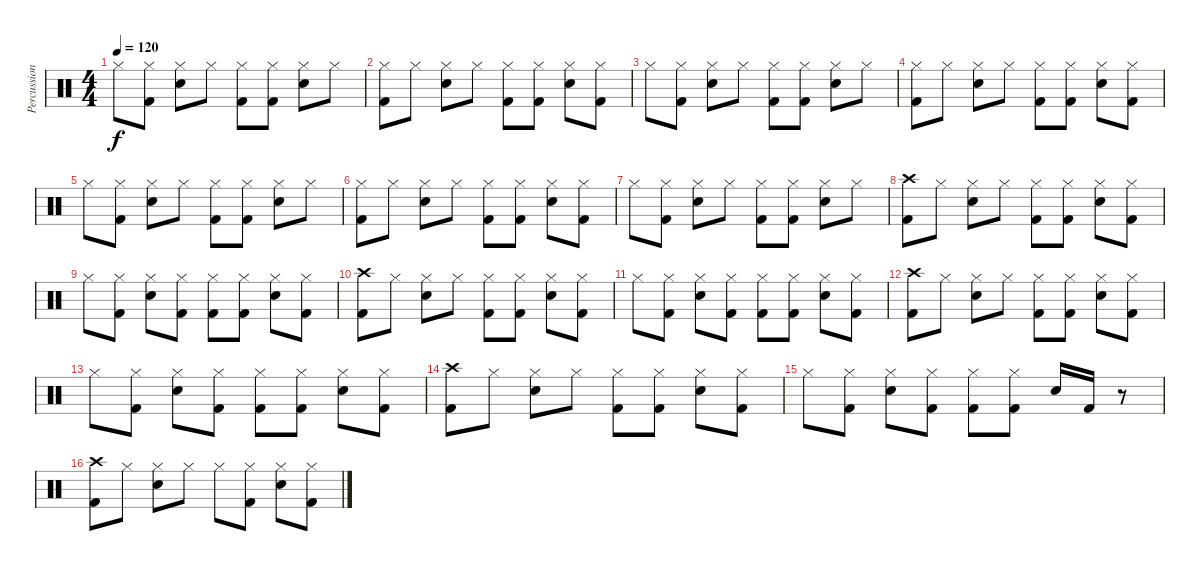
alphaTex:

\track ("Percussion" "Percussion") {instrument percussion}
\staff {score}
\articulation defaults
\ts (4 4)
\tempo 120
\clef neutral
\ks c "Hi-Hat (closed)".8{dy f}
("Hi-Hat (closed)" "Kick (hit) 2").8 ("Hi-Hat (closed)" "Snare (hit) 2").8 "Hi-Hat (closed)".8 ("Hi-Hat (closed)" "Kick (hit) 2").8 ("Hi-Hat (closed)" "Kick (hit) 2").8 ("Hi-Hat (closed)" "Snare (hit) 2").8 "Hi-Hat (closed)".8 |
("Hi-Hat (closed)" "Kick (hit) 2").8 "Hi-Hat (closed)".8 ("Hi-Hat (closed)" "Snare (hit) 2").8 "Hi-Hat (closed)".8 ("Hi-Hat (closed)" "Kick (hit) 2").8 ("Hi-Hat (closed)" "Kick (hit) 2").8 ("Hi-Hat (closed)" "Snare (hit) 2").8 ("Hi-Hat (closed)" "Kick (hit) 2").8 |
"Hi-Hat (closed)".8 ("Hi-Hat (closed)" "Kick (hit) 2").8 ("Hi-Hat (closed)" "Snare (hit) 2").8 "Hi-Hat (closed)".8 ("Hi-Hat (closed)" "Kick (hit) 2").8 ("Hi-Hat (closed)" "Kick (hit) 2").8 ("Hi-Hat (closed)" "Snare (hit) 2").8 "Hi-Hat (closed)".8 |
("Hi-Hat (closed)" "Kick (hit) 2").8 "Hi-Hat (closed)".8 ("Hi-Hat (closed)" "Snare (hit) 2").8 "Hi-Hat (closed)".8 ("Hi-Hat (closed)" "Kick (hit) 2").8 ("Hi-Hat (closed)" "Kick (hit) 2").8 ("Hi-Hat (closed)" "Snare (hit) 2").8 ("Hi-Hat (closed)" "Kick (hit) 2").8 |
"Hi-Hat (closed)".8 ("Hi-Hat (closed)" "Kick (hit) 2").8 ("Hi-Hat (closed)" "Snare (hit) 2").8 "Hi-Hat (closed)".8 ("Hi-Hat (closed)" "Kick (hit) 2").8 ("Hi-Hat (closed)" "Kick (hit) 2").8 ("Hi-Hat (closed)" "Snare (hit) 2").8 "Hi-Hat (closed)".8 |
("Hi-Hat (closed)" "Kick (hit) 2").8 "Hi-Hat (closed)".8 ("Hi-Hat (closed)" "Snare (hit) 2").8 "Hi-Hat (closed)".8 ("Hi-Hat (closed)" "Kick (hit) 2").8 ("Hi-Hat (closed)" "Kick (hit) 2").8 ("Hi-Hat (closed)" "Snare (hit) 2").8 ("Hi-Hat (closed)" "Kick (hit) 2").8 |
"Hi-Hat (closed)".8 ("Hi-Hat (closed)" "Kick (hit) 2").8 ("Hi-Hat (closed)" "Snare (hit) 2").8 "Hi-Hat (closed)".8 ("Hi-Hat (closed)" "Kick (hit) 2").8 ("Hi-Hat (closed)" "Kick (hit) 2").8 ("Hi-Hat (closed)" "Snare (hit) 2").8 "Hi-Hat (closed)".8 |
("Crash high (hit)" "Kick (hit) 2").8 "Hi-Hat (closed)".8 ("Hi-Hat (closed)" "Snare (hit) 2").8 "Hi-Hat (closed)".8 ("Hi-Hat (closed)" "Kick (hit) 2").8 ("Hi-Hat (closed)" "Kick (hit) 2").8 ("Hi-Hat (closed)" "Snare (hit) 2").8 ("Hi-Hat (closed)" "Kick (hit) 2").8 |
"Hi-Hat (closed)".8 ("Hi-Hat (closed)" "Kick (hit) 2").8 ("Hi-Hat (closed)" "Snare (hit) 2").8 ("Hi-Hat (closed)" "Kick (hit) 2").8 ("Hi-Hat (closed)" "Kick (hit) 2").8 ("Hi-Hat (closed)" "Kick (hit) 2").8 ("Hi-Hat (closed)" "Snare (hit) 2").8 ("Hi-Hat (closed)" "Kick (hit) 2").8 |
("Crash high (hit)" "Kick (hit) 2").8 "Hi-Hat (closed)".8 ("Hi-Hat (closed)" "Snare (hit) 2").8 "Hi-Hat (closed)".8 ("Hi-Hat (closed)" "Kick (hit) 2").8 ("Hi-Hat (closed)" "Kick (hit) 2").8 ("Hi-Hat (closed)" "Snare (hit) 2").8 ("Hi-Hat (closed)" "Kick (hit) 2").8 |
"Hi-Hat (closed)".8 ("Hi-Hat (closed)" "Kick (hit) 2").8 ("Hi-Hat (closed)" "Snare (hit) 2").8 ("Hi-Hat (closed)" "Kick (hit) 2").8 ("Hi-Hat (closed)" "Kick (hit) 2").8 ("Hi-Hat (closed)" "Kick (hit) 2").8 ("Hi-Hat (closed)" "Snare (hit) 2").8 ("Hi-Hat (closed)" "Kick (hit) 2").8 |
("Crash high (hit)" "Kick (hit) 2").8 "Hi-Hat (closed)".8 ("Hi-Hat (closed)" "Snare (hit) 2").8 "Hi-Hat (closed)".8 ("Hi-Hat (closed)" "Kick (hit) 2").8 ("Hi-Hat (closed)" "Kick (hit) 2").8 ("Hi-Hat (closed)" "Snare (hit) 2").8 ("Hi-Hat (closed)" "Kick (hit) 2").8 |
"Hi-Hat (closed)".8 ("Hi-Hat (closed)" "Kick (hit) 2").8 ("Hi-Hat (closed)" "Snare (hit) 2").8 ("Hi-Hat (closed)" "Kick (hit) 2").8 ("Hi-Hat (closed)" "Kick (hit) 2").8 ("Hi-Hat (closed)" "Kick (hit) 2").8 ("Hi-Hat (closed)" "Snare (hit) 2").8 ("Hi-Hat (closed)" "Kick (hit) 2").8 |
("Crash high (hit)" "Kick (hit) 2").8 "Hi-Hat (closed)".8 ("Hi-Hat (closed)" "Snare (hit) 2").8 "Hi-Hat (closed)".8 ("Hi-Hat (closed)" "Kick (hit) 2").8 ("Hi-Hat (closed)" "Kick (hit) 2").8 ("Hi-Hat (closed)" "Snare (hit) 2").8 ("Hi-Hat (closed)" "Kick (hit) 2").8 |
"Hi-Hat (closed)".8 ("Hi-Hat (closed)" "Kick (hit) 2").8 ("Hi-Hat (closed)" "Snare (hit) 2").8 ("Hi-Hat (closed)" "Kick (hit) 2").8 ("Hi-Hat (closed)" "Kick (hit) 2").8 ("Hi-Hat (closed)" "Kick (hit) 2").8 "Electric Snare (hit)".16 "Kick (hit) 2".16 r.8 |
("Crash high (hit)" "Kick (hit) 2").8 "Hi-Hat (closed)".8 ("Hi-Hat (closed)" "Snare (hit) 2").8 "Hi-Hat (closed)".8 "Hi-Hat (closed)".8 ("Hi-Hat (closed)" "Kick (hit) 2").8 ("Hi-Hat (closed)" "Snare (hit) 2").8 ("Hi-Hat (closed)" "Kick (hit) 2").8
